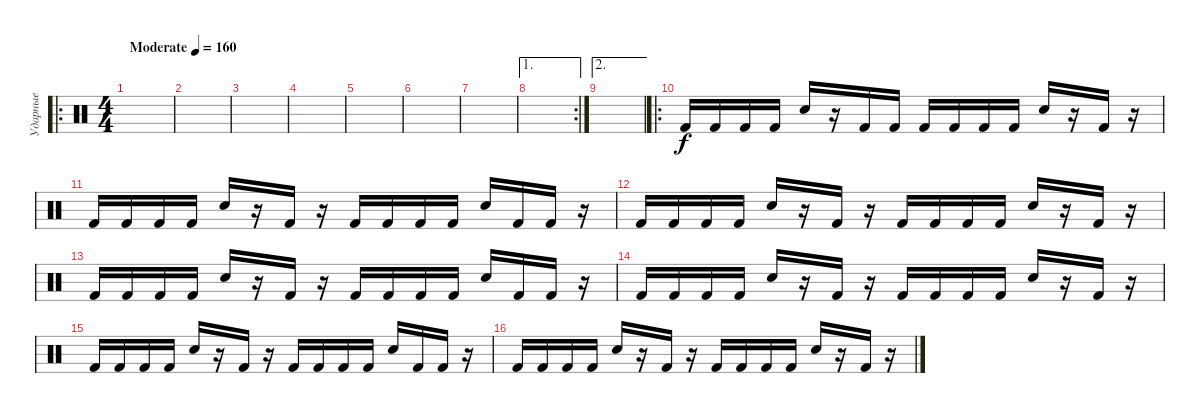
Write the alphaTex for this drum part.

\track ("Ударные" "Ударные") {instrument percussion}
\staff {score}
\articulation defaults
\ro
\ts (4 4)
\tempo (160 "Moderate")
\clef neutral
\ks c
|
|
|
|
|
|
|
\ae 1
\rc 2
|
\ae 2
|
\ro "Kick (hit) 2".16 "Kick (hit) 2".16 "Kick (hit) 2".16 "Kick (hit) 2".16 "Electric Snare (hit)".16
r.16 "Kick (hit) 2".16 "Kick (hit) 2".16 "Kick (hit) 2".16 "Kick (hit) 2".16 "Kick (hit) 2".16 "Kick (hit) 2".16 "Electric Snare (hit)".16 r.16 "Kick (hit) 2".16 r.16 |
"Kick (hit) 2".16 "Kick (hit) 2".16 "Kick (hit) 2".16 "Kick (hit) 2".16 "Electric Snare (hit)".16 r.16 "Kick (hit) 2".16 r.16 "Kick (hit) 2".16 "Kick (hit) 2".16 "Kick (hit) 2".16 "Kick (hit) 2".16 "Electric Snare (hit)".16 "Kick (hit) 2".16 "Kick (hit) 2".16 r.16 |
"Kick (hit) 2".16 "Kick (hit) 2".16 "Kick (hit) 2".16 "Kick (hit) 2".16 "Electric Snare (hit)".16 r.16 "Kick (hit) 2".16 r.16 "Kick (hit) 2".16 "Kick (hit) 2".16 "Kick (hit) 2".16 "Kick (hit) 2".16 "Electric Snare (hit)".16 r.16 "Kick (hit) 2".16 r.16 |
"Kick (hit) 2".16 "Kick (hit) 2".16 "Kick (hit) 2".16 "Kick (hit) 2".16 "Electric Snare (hit)".16 r.16 "Kick (hit) 2".16 r.16 "Kick (hit) 2".16 "Kick (hit) 2".16 "Kick (hit) 2".16 "Kick (hit) 2".16 "Electric Snare (hit)".16 "Kick (hit) 2".16 "Kick (hit) 2".16 r.16 |
"Kick (hit) 2".16 "Kick (hit) 2".16 "Kick (hit) 2".16 "Kick (hit) 2".16 "Electric Snare (hit)".16 r.16 "Kick (hit) 2".16 r.16 "Kick (hit) 2".16 "Kick (hit) 2".16 "Kick (hit) 2".16 "Kick (hit) 2".16 "Electric Snare (hit)".16 r.16 "Kick (hit) 2".16 r.16 |
"Kick (hit) 2".16 "Kick (hit) 2".16 "Kick (hit) 2".16 "Kick (hit) 2".16 "Electric Snare (hit)".16 r.16 "Kick (hit) 2".16 r.16 "Kick (hit) 2".16 "Kick (hit) 2".16 "Kick (hit) 2".16 "Kick (hit) 2".16 "Electric Snare (hit)".16 "Kick (hit) 2".16 "Kick (hit) 2".16 r.16 |
"Kick (hit) 2".16 "Kick (hit) 2".16 "Kick (hit) 2".16 "Kick (hit) 2".16 "Electric Snare (hit)".16 r.16 "Kick (hit) 2".16 r.16 "Kick (hit) 2".16 "Kick (hit) 2".16 "Kick (hit) 2".16 "Kick (hit) 2".16 "Electric Snare (hit)".16 r.16 "Kick (hit) 2".16 r.16
